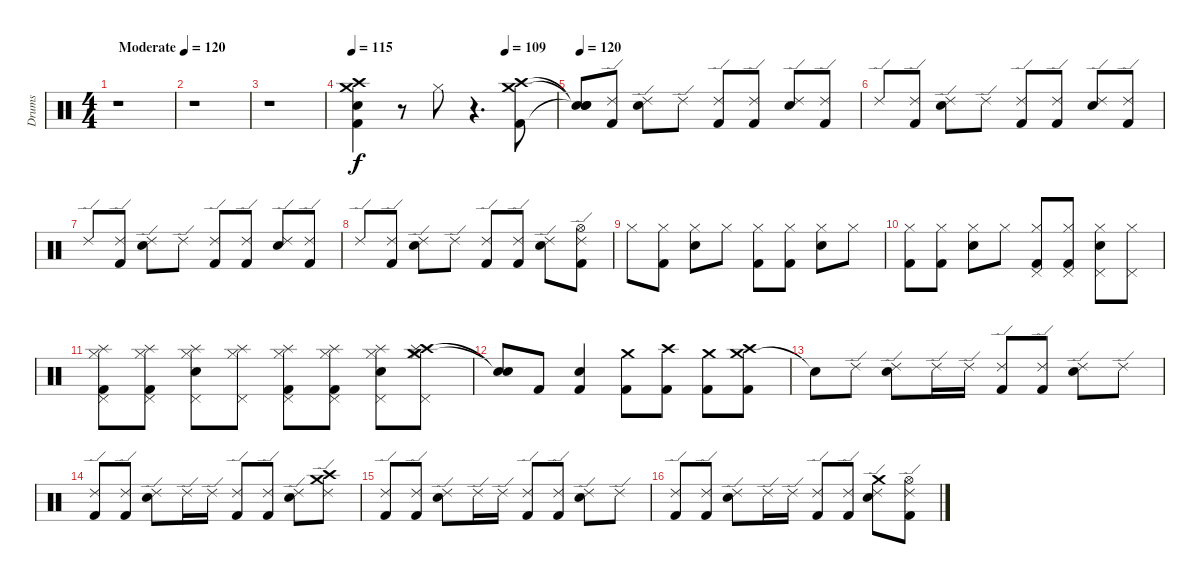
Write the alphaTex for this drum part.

\track ("Drums" "Drums") {instrument percussion}
\staff {score}
\articulation defaults
\ts (4 4)
\tempo (120 "Moderate")
\clef neutral
\ks c
r.1{dy f} |
r.1 |
r.1 |
\tempo 115
\tempo (109 0.75)
("Crash medium (hit)" "Crash high (hit)" "Kick (hit) 2" "Snare (hit) 2").4 r.8 "Hi-Hat (closed)".8 r.4{d} ("Crash medium (hit)" "Kick (hit) 2" "Crash high (hit)").8 |
\tempo 120
("Snare (hit)"{t} "Snare (hit)"{t} "Snare (hit)"{t}).8 ("Ride (edge) 2" "Kick (hit) 2").8 ("Ride (edge) 2" "Snare (hit) 2").8 "Ride (edge) 2".8 ("Ride (edge) 2" "Kick (hit) 2").8 ("Ride (edge) 2" "Kick (hit) 2").8 ("Ride (edge) 2" "Snare (hit) 2").8 ("Ride (edge) 2" "Kick (hit) 2").8 |
"Ride (edge) 2".8 ("Ride (edge) 2" "Kick (hit) 2").8 ("Ride (edge) 2" "Snare (hit) 2").8 "Ride (edge) 2".8 ("Ride (edge) 2" "Kick (hit) 2").8 ("Ride (edge) 2" "Kick (hit) 2").8 ("Ride (edge) 2" "Snare (hit) 2").8 ("Ride (edge) 2" "Kick (hit) 2").8 |
"Ride (edge) 2".8 ("Ride (edge) 2" "Kick (hit) 2").8 ("Ride (edge) 2" "Snare (hit) 2").8 "Ride (edge) 2".8 ("Ride (edge) 2" "Kick (hit) 2").8 ("Ride (edge) 2" "Kick (hit) 2").8 ("Ride (edge) 2" "Snare (hit) 2").8 ("Ride (edge) 2" "Kick (hit) 2").8 |
"Ride (edge) 2".8 ("Ride (edge) 2" "Kick (hit) 2").8 ("Ride (edge) 2" "Snare (hit) 2").8 "Ride (edge) 2".8 ("Ride (edge) 2" "Kick (hit) 2").8 ("Ride (edge) 2" "Kick (hit) 2").8 ("Ride (edge) 2" "Snare (hit) 2").8 ("Ride (edge) 2" "Kick (hit) 2" "Hi-Hat (open)").8 |
"Hi-Hat (closed)".8 ("Hi-Hat (closed)" "Kick (hit) 2").8 ("Hi-Hat (closed)" "Snare (hit) 2").8 "Hi-Hat (closed)".8 ("Hi-Hat (closed)" "Kick (hit) 2").8 ("Hi-Hat (closed)" "Kick (hit) 2").8 ("Hi-Hat (closed)" "Snare (hit) 2").8 "Hi-Hat (closed)".8 |
("Hi-Hat (closed)" "Kick (hit) 2").8 ("Hi-Hat (closed)" "Kick (hit) 2").8 ("Hi-Hat (closed)" "Snare (hit) 2").8 "Hi-Hat (closed)".8 ("Pedal Hi-Hat (hit)" "Hi-Hat (closed)" "Kick (hit) 2").8 ("Pedal Hi-Hat (hit)" "Hi-Hat (closed)" "Kick (hit) 2").8 ("Pedal Hi-Hat (hit)" "Hi-Hat (closed)" "Snare (hit) 2").8 ("Hi-Hat (closed)" "Pedal Hi-Hat (hit)").8 |
("Splash (hit)" "Pedal Hi-Hat (hit)" "Hi-Hat (closed)" "Kick (hit) 2").8 ("Splash (hit)" "Pedal Hi-Hat (hit)" "Hi-Hat (closed)" "Kick (hit) 2").8 ("Splash (hit)" "Pedal Hi-Hat (hit)" "Hi-Hat (closed)" "Snare (hit) 2").8 ("Splash (hit)" "Pedal Hi-Hat (hit)" "Hi-Hat (closed)").8 ("Splash (hit)" "Pedal Hi-Hat (hit)" "Hi-Hat (closed)" "Kick (hit) 2").8 ("Splash (hit)" "Pedal Hi-Hat (hit)" "Hi-Hat (closed)" "Kick (hit) 2").8 ("Splash (hit)" "Pedal Hi-Hat (hit)" "Hi-Hat (closed)" "Snare (hit) 2").8 ("Crash medium (hit)" "Crash high (hit)" "Splash (hit)" "Pedal Hi-Hat (hit)" "Hi-Hat (closed)").8 |
("Snare (hit)"{t} "Snare (hit)"{t}).8 "Kick (hit) 2".8 ("Snare (hit) 2" "Kick (hit) 2").4 ("Crash medium (hit)" "Kick (hit) 2").8 ("Crash high (hit)" "Kick (hit) 2").8 ("Crash medium (hit)" "Kick (hit) 2").8 ("Crash medium (hit)" "Crash high (hit)" "Kick (hit) 2").8 |
"Snare (hit)"{t}.8 "Ride (edge) 2".8 ("Ride (edge) 2" "Snare (hit) 2").8 "Ride (edge) 2".16 "Ride (edge) 2".16 ("Ride (edge) 2" "Kick (hit) 2").8 ("Ride (edge) 2" "Kick (hit) 2").8 ("Ride (edge) 2" "Snare (hit) 2").8 "Ride (edge) 2".8 |
("Ride (edge) 2" "Kick (hit) 2").8 ("Ride (edge) 2" "Kick (hit) 2").8 ("Ride (edge) 2" "Snare (hit) 2").8 "Ride (edge) 2".16 "Ride (edge) 2".16 ("Ride (edge) 2" "Kick (hit) 2").8 ("Ride (edge) 2" "Kick (hit) 2").8 ("Ride (edge) 2" "Snare (hit) 2").8 ("Ride (edge) 2" "Crash medium (hit)" "Crash high (hit)").8 |
("Ride (edge) 2" "Kick (hit) 2").8 ("Ride (edge) 2" "Kick (hit) 2").8 ("Ride (edge) 2" "Snare (hit) 2").8 "Ride (edge) 2".16 "Ride (edge) 2".16 ("Ride (edge) 2" "Kick (hit) 2").8 ("Ride (edge) 2" "Kick (hit) 2").8 ("Ride (edge) 2" "Snare (hit) 2").8 "Ride (edge) 2".8 |
("Ride (edge) 2" "Kick (hit) 2").8 ("Ride (edge) 2" "Kick (hit) 2").8 ("Ride (edge) 2" "Snare (hit) 2").8 "Ride (edge) 2".16 "Ride (edge) 2".16 ("Ride (edge) 2" "Kick (hit) 2").8 ("Ride (edge) 2" "Kick (hit) 2").8 ("Ride (edge) 2" "Crash medium (hit)" "Snare (hit) 2").8 ("Ride (edge) 2" "Hi-Hat (open)" "Kick (hit) 2").8
